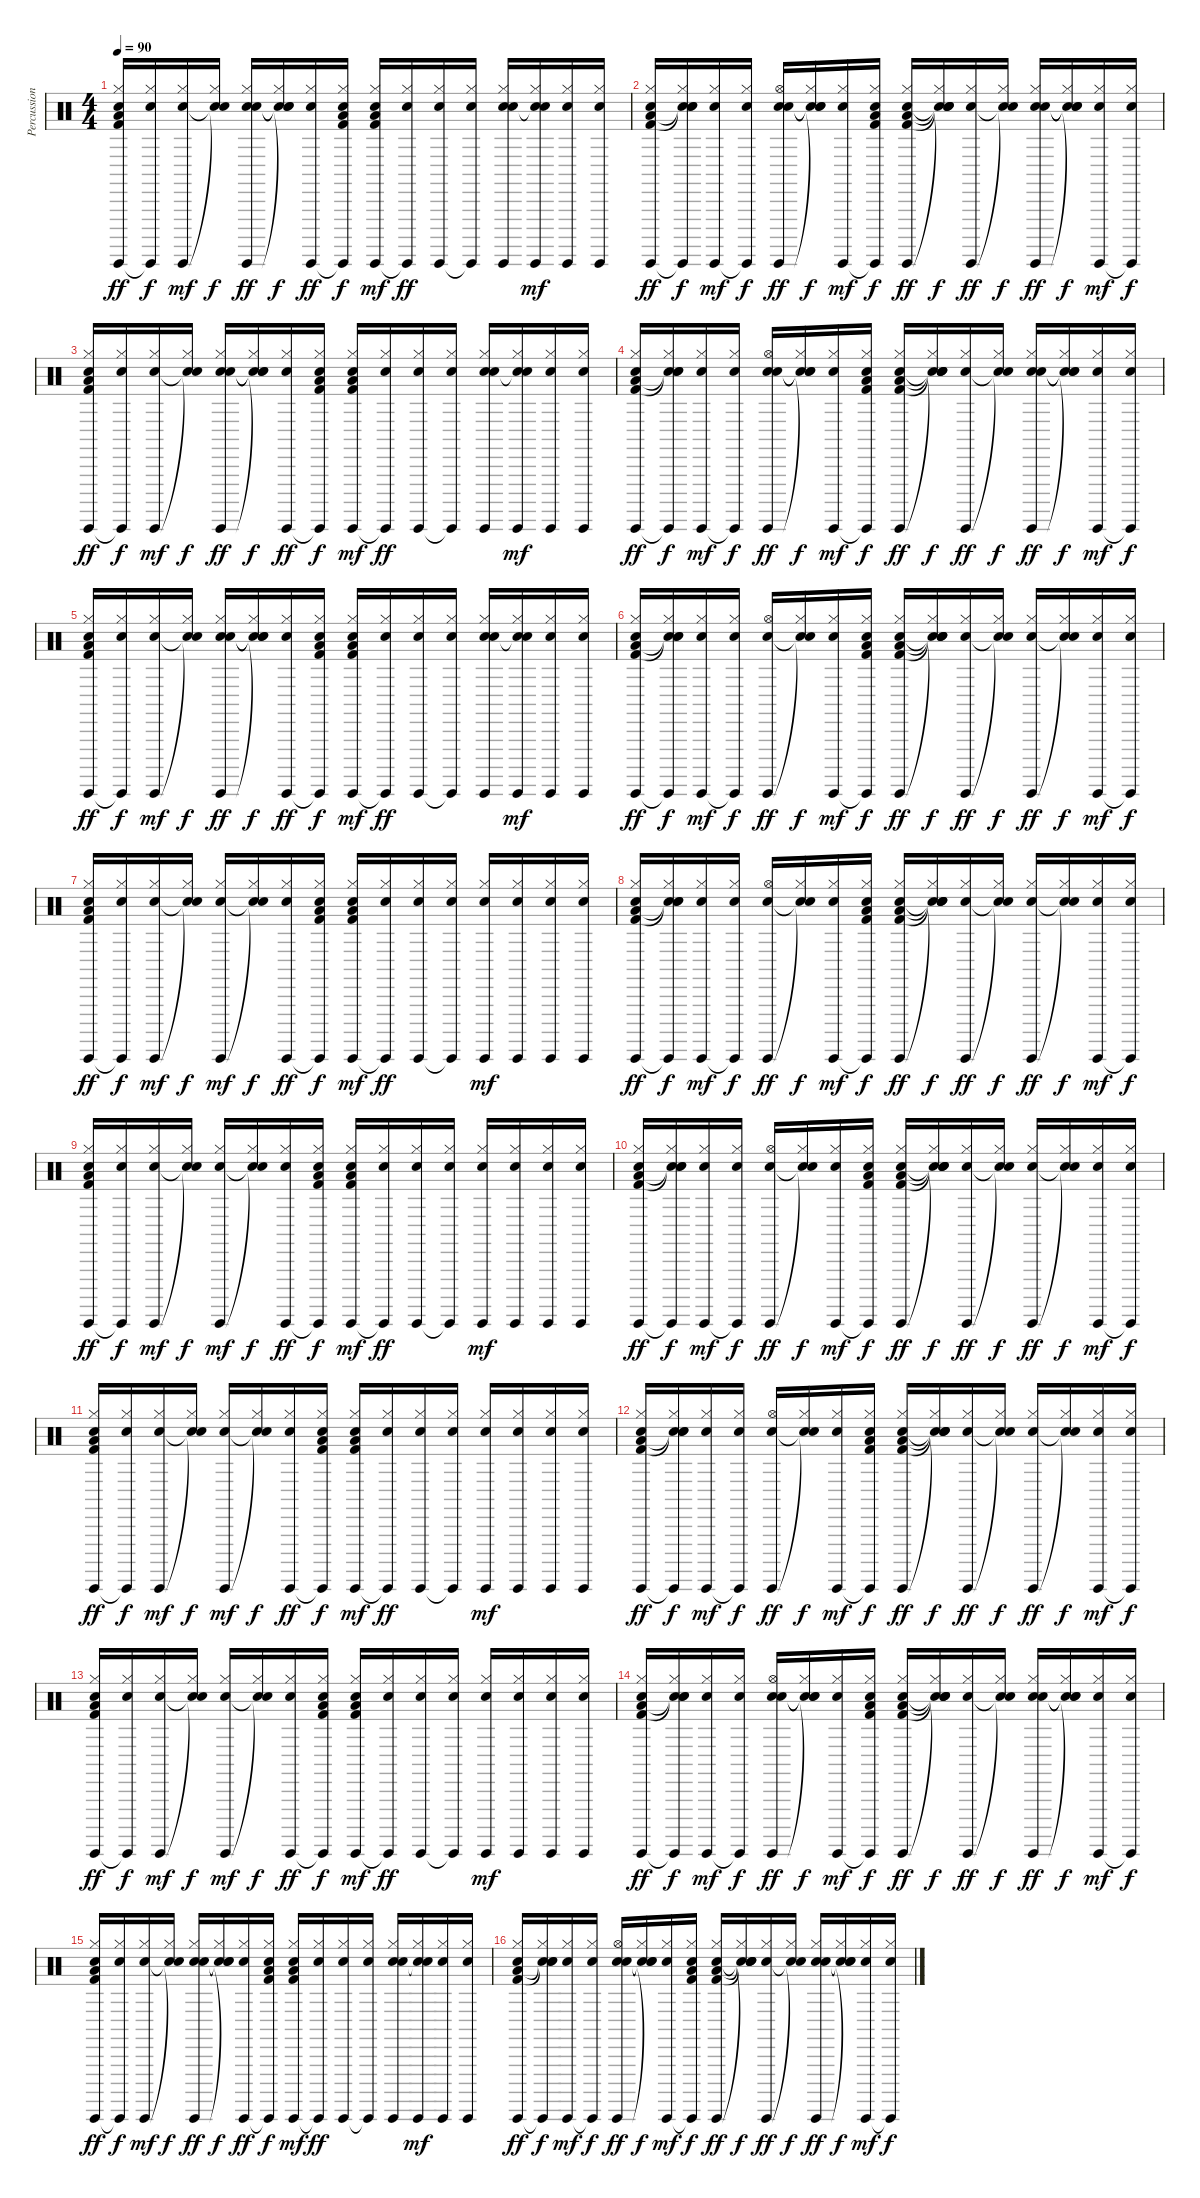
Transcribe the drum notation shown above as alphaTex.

\track ("Percussion" "Percussion") {instrument percussion}
\staff {score}
\articulation defaults
\ts (4 4)
\tempo 90
\clef neutral
\ks c
("Guiro (hit)" "Hi-Hat (closed)" "Hand Clap (hit)" "Low Floor Tom (hit)" "Kick (hit) 2").16{dy ff} ("Guiro (hit)"{t} "Hi-Hat (closed)" "Hand Clap (hit)").16{dy f} ("Guiro (hit)" "Hi-Hat (closed)" "Hand Clap (hit)").16{dy mf} ("Snare (hit)"{t} "Hi-Hat (closed)" "Snare (hit)"{t}).16{dy f} ("Guiro (hit)" "Hi-Hat (closed)" "Hand Clap (hit)" "Snare (hit) 2").16{dy ff} ("Snare (hit)"{t} "Hi-Hat (closed)" "Snare (hit)"{t} "Snare (hit)"{t}).16{dy f} ("Guiro (hit)" "Hi-Hat (closed)" "Hand Clap (hit)").16{dy ff} ("Guiro (hit)"{t} "Hi-Hat (closed)" "Hand Clap (hit)" "Low Floor Tom (hit)" "Kick (hit) 2").16{dy f} ("Guiro (hit)" "Hi-Hat (closed)" "Hand Clap (hit)" "Low Floor Tom (hit)" "Kick (hit) 2").16{dy mf} ("Guiro (hit)"{t} "Hi-Hat (closed)" "Hand Clap (hit)").16{dy ff} ("Guiro (hit)" "Hi-Hat (closed)" "Hand Clap (hit)").16 ("Guiro (hit)"{t} "Hi-Hat (closed)" "Hand Clap (hit)").16 ("Guiro (hit)" "Hi-Hat (closed)" "Hand Clap (hit)" "Snare (hit) 2").16 ("Guiro (hit)" "Hi-Hat (closed)" "Hand Clap (hit)" "Snare (hit)"{t}).16{dy mf} ("Guiro (hit)" "Hi-Hat (closed)" "Hand Clap (hit)").16 ("Guiro (hit)" "Hi-Hat (closed)" "Hand Clap (hit)").16 |
("Guiro (hit)" "Hi-Hat (closed)" "Hand Clap (hit)" "Low Floor Tom (hit)" "Kick (hit) 2").16{dy ff} ("Guiro (hit)"{t} "Hi-Hat (closed)" "Hand Clap (hit)" "Snare (hit)"{t} "Snare (hit)"{t}).16{dy f} ("Guiro (hit)" "Hi-Hat (closed)" "Hand Clap (hit)").16{dy mf} ("Guiro (hit)"{t} "Hi-Hat (closed)" "Hand Clap (hit)").16{dy f} ("Guiro (hit)" "Hi-Hat (open)" "Hand Clap (hit)" "Snare (hit) 2").16{dy ff} ("Snare (hit)"{t} "Hi-Hat (closed)" "Snare (hit)"{t} "Snare (hit)"{t}).16{dy f} ("Guiro (hit)" "Hi-Hat (closed)" "Hand Clap (hit)").16{dy mf} ("Guiro (hit)"{t} "Hi-Hat (closed)" "Hand Clap (hit)" "Low Floor Tom (hit)" "Kick (hit) 2").16{dy f} ("Guiro (hit)" "Hi-Hat (closed)" "Hand Clap (hit)" "Low Floor Tom (hit)" "Kick (hit) 2").16{dy ff} ("Snare (hit)"{t} "Hi-Hat (closed)" "Snare (hit)"{t} "Snare (hit)"{t} "Snare (hit)"{t}).16{dy f} ("Guiro (hit)" "Hi-Hat (closed)" "Hand Clap (hit)").16{dy ff} ("Snare (hit)"{t} "Hi-Hat (closed)" "Snare (hit)"{t}).16{dy f} ("Guiro (hit)" "Hi-Hat (closed)" "Hand Clap (hit)" "Snare (hit) 2").16{dy ff} ("Snare (hit)"{t} "Hi-Hat (closed)" "Snare (hit)"{t} "Snare (hit)"{t}).16{dy f} ("Guiro (hit)" "Hi-Hat (closed)" "Hand Clap (hit)").16{dy mf} ("Guiro (hit)"{t} "Hi-Hat (closed)" "Hand Clap (hit)").16{dy f} |
("Guiro (hit)" "Hi-Hat (closed)" "Hand Clap (hit)" "Low Floor Tom (hit)" "Kick (hit) 2").16{dy ff} ("Guiro (hit)"{t} "Hi-Hat (closed)" "Hand Clap (hit)").16{dy f} ("Guiro (hit)" "Hi-Hat (closed)" "Hand Clap (hit)").16{dy mf} ("Snare (hit)"{t} "Hi-Hat (closed)" "Snare (hit)"{t}).16{dy f} ("Guiro (hit)" "Hi-Hat (closed)" "Hand Clap (hit)" "Snare (hit) 2").16{dy ff} ("Snare (hit)"{t} "Hi-Hat (closed)" "Snare (hit)"{t} "Snare (hit)"{t}).16{dy f} ("Guiro (hit)" "Hi-Hat (closed)" "Hand Clap (hit)").16{dy ff} ("Guiro (hit)"{t} "Hi-Hat (closed)" "Hand Clap (hit)" "Low Floor Tom (hit)" "Kick (hit) 2").16{dy f} ("Guiro (hit)" "Hi-Hat (closed)" "Hand Clap (hit)" "Low Floor Tom (hit)" "Kick (hit) 2").16{dy mf} ("Guiro (hit)"{t} "Hi-Hat (closed)" "Hand Clap (hit)").16{dy ff} ("Guiro (hit)" "Hi-Hat (closed)" "Hand Clap (hit)").16 ("Guiro (hit)"{t} "Hi-Hat (closed)" "Hand Clap (hit)").16 ("Guiro (hit)" "Hi-Hat (closed)" "Hand Clap (hit)" "Snare (hit) 2").16 ("Guiro (hit)" "Hi-Hat (closed)" "Hand Clap (hit)" "Snare (hit)"{t}).16{dy mf} ("Guiro (hit)" "Hi-Hat (closed)" "Hand Clap (hit)").16 ("Guiro (hit)" "Hi-Hat (closed)" "Hand Clap (hit)").16 |
("Guiro (hit)" "Hi-Hat (closed)" "Hand Clap (hit)" "Low Floor Tom (hit)" "Kick (hit) 2").16{dy ff} ("Guiro (hit)"{t} "Hi-Hat (closed)" "Hand Clap (hit)" "Snare (hit)"{t} "Snare (hit)"{t}).16{dy f} ("Guiro (hit)" "Hi-Hat (closed)" "Hand Clap (hit)").16{dy mf} ("Guiro (hit)"{t} "Hi-Hat (closed)" "Hand Clap (hit)").16{dy f} ("Guiro (hit)" "Hi-Hat (open)" "Hand Clap (hit)" "Snare (hit) 2").16{dy ff} ("Snare (hit)"{t} "Hi-Hat (closed)" "Snare (hit)"{t} "Snare (hit)"{t}).16{dy f} ("Guiro (hit)" "Hi-Hat (closed)" "Hand Clap (hit)").16{dy mf} ("Guiro (hit)"{t} "Hi-Hat (closed)" "Hand Clap (hit)" "Low Floor Tom (hit)" "Kick (hit) 2").16{dy f} ("Guiro (hit)" "Hi-Hat (closed)" "Hand Clap (hit)" "Low Floor Tom (hit)" "Kick (hit) 2").16{dy ff} ("Snare (hit)"{t} "Hi-Hat (closed)" "Snare (hit)"{t} "Snare (hit)"{t} "Snare (hit)"{t}).16{dy f} ("Guiro (hit)" "Hi-Hat (closed)" "Hand Clap (hit)").16{dy ff} ("Snare (hit)"{t} "Hi-Hat (closed)" "Snare (hit)"{t}).16{dy f} ("Guiro (hit)" "Hi-Hat (closed)" "Hand Clap (hit)" "Snare (hit) 2").16{dy ff} ("Snare (hit)"{t} "Hi-Hat (closed)" "Snare (hit)"{t} "Snare (hit)"{t}).16{dy f} ("Guiro (hit)" "Hi-Hat (closed)" "Hand Clap (hit)").16{dy mf} ("Guiro (hit)"{t} "Hi-Hat (closed)" "Hand Clap (hit)").16{dy f} |
("Guiro (hit)" "Hi-Hat (closed)" "Hand Clap (hit)" "Low Floor Tom (hit)" "Kick (hit) 2").16{dy ff} ("Guiro (hit)"{t} "Hi-Hat (closed)" "Hand Clap (hit)").16{dy f} ("Guiro (hit)" "Hi-Hat (closed)" "Hand Clap (hit)").16{dy mf} ("Snare (hit)"{t} "Hi-Hat (closed)" "Snare (hit)"{t}).16{dy f} ("Guiro (hit)" "Hi-Hat (closed)" "Hand Clap (hit)" "Snare (hit) 2").16{dy ff} ("Snare (hit)"{t} "Hi-Hat (closed)" "Snare (hit)"{t} "Snare (hit)"{t}).16{dy f} ("Guiro (hit)" "Hi-Hat (closed)" "Hand Clap (hit)").16{dy ff} ("Guiro (hit)"{t} "Hi-Hat (closed)" "Hand Clap (hit)" "Low Floor Tom (hit)" "Kick (hit) 2").16{dy f} ("Guiro (hit)" "Hi-Hat (closed)" "Hand Clap (hit)" "Low Floor Tom (hit)" "Kick (hit) 2").16{dy mf} ("Guiro (hit)"{t} "Hi-Hat (closed)" "Hand Clap (hit)").16{dy ff} ("Guiro (hit)" "Hi-Hat (closed)" "Hand Clap (hit)").16 ("Guiro (hit)"{t} "Hi-Hat (closed)" "Hand Clap (hit)").16 ("Guiro (hit)" "Hi-Hat (closed)" "Hand Clap (hit)" "Snare (hit) 2").16 ("Guiro (hit)" "Hi-Hat (closed)" "Hand Clap (hit)" "Snare (hit)"{t}).16{dy mf} ("Guiro (hit)" "Hi-Hat (closed)" "Hand Clap (hit)").16 ("Guiro (hit)" "Hi-Hat (closed)" "Hand Clap (hit)").16 |
("Guiro (hit)" "Hi-Hat (closed)" "Hand Clap (hit)" "Low Floor Tom (hit)" "Kick (hit) 2").16{dy ff} ("Guiro (hit)"{t} "Hi-Hat (closed)" "Hand Clap (hit)" "Snare (hit)"{t} "Snare (hit)"{t}).16{dy f} ("Guiro (hit)" "Hi-Hat (closed)" "Hand Clap (hit)").16{dy mf} ("Guiro (hit)"{t} "Hi-Hat (closed)" "Hand Clap (hit)").16{dy f} ("Guiro (hit)" "Hi-Hat (open)" "Hand Clap (hit)").16{dy ff} ("Snare (hit)"{t} "Hi-Hat (closed)" "Snare (hit)"{t}).16{dy f} ("Guiro (hit)" "Hi-Hat (closed)" "Hand Clap (hit)").16{dy mf} ("Guiro (hit)"{t} "Hi-Hat (closed)" "Hand Clap (hit)" "Low Floor Tom (hit)" "Kick (hit) 2").16{dy f} ("Guiro (hit)" "Hi-Hat (closed)" "Hand Clap (hit)" "Low Floor Tom (hit)" "Kick (hit) 2").16{dy ff} ("Snare (hit)"{t} "Hi-Hat (closed)" "Snare (hit)"{t} "Snare (hit)"{t} "Snare (hit)"{t}).16{dy f} ("Guiro (hit)" "Hi-Hat (closed)" "Hand Clap (hit)").16{dy ff} ("Snare (hit)"{t} "Hi-Hat (closed)" "Snare (hit)"{t}).16{dy f} ("Guiro (hit)" "Hi-Hat (closed)" "Hand Clap (hit)").16{dy ff} ("Snare (hit)"{t} "Hi-Hat (closed)" "Snare (hit)"{t}).16{dy f} ("Guiro (hit)" "Hi-Hat (closed)" "Hand Clap (hit)").16{dy mf} ("Guiro (hit)"{t} "Hi-Hat (closed)" "Hand Clap (hit)").16{dy f} |
("Guiro (hit)" "Hi-Hat (closed)" "Hand Clap (hit)" "Low Floor Tom (hit)" "Kick (hit) 2").16{dy ff} ("Guiro (hit)"{t} "Hi-Hat (closed)" "Hand Clap (hit)").16{dy f} ("Guiro (hit)" "Hi-Hat (closed)" "Hand Clap (hit)").16{dy mf} ("Snare (hit)"{t} "Hi-Hat (closed)" "Snare (hit)"{t}).16{dy f} ("Guiro (hit)" "Hi-Hat (closed)" "Hand Clap (hit)").16{dy mf} ("Snare (hit)"{t} "Hi-Hat (closed)" "Snare (hit)"{t}).16{dy f} ("Guiro (hit)" "Hi-Hat (closed)" "Hand Clap (hit)").16{dy ff} ("Guiro (hit)"{t} "Hi-Hat (closed)" "Hand Clap (hit)" "Low Floor Tom (hit)" "Kick (hit) 2").16{dy f} ("Guiro (hit)" "Hi-Hat (closed)" "Hand Clap (hit)" "Low Floor Tom (hit)" "Kick (hit) 2").16{dy mf} ("Guiro (hit)"{t} "Hi-Hat (closed)" "Hand Clap (hit)").16{dy ff} ("Guiro (hit)" "Hi-Hat (closed)" "Hand Clap (hit)").16 ("Guiro (hit)"{t} "Hi-Hat (closed)" "Hand Clap (hit)").16 ("Guiro (hit)" "Hi-Hat (closed)" "Hand Clap (hit)").16{dy mf} ("Guiro (hit)" "Hi-Hat (closed)" "Hand Clap (hit)").16 ("Guiro (hit)" "Hi-Hat (closed)" "Hand Clap (hit)").16 ("Guiro (hit)" "Hi-Hat (closed)" "Hand Clap (hit)").16 |
("Guiro (hit)" "Hi-Hat (closed)" "Hand Clap (hit)" "Low Floor Tom (hit)" "Kick (hit) 2").16{dy ff} ("Guiro (hit)"{t} "Hi-Hat (closed)" "Hand Clap (hit)" "Snare (hit)"{t} "Snare (hit)"{t}).16{dy f} ("Guiro (hit)" "Hi-Hat (closed)" "Hand Clap (hit)").16{dy mf} ("Guiro (hit)"{t} "Hi-Hat (closed)" "Hand Clap (hit)").16{dy f} ("Guiro (hit)" "Hi-Hat (open)" "Hand Clap (hit)").16{dy ff} ("Snare (hit)"{t} "Hi-Hat (closed)" "Snare (hit)"{t}).16{dy f} ("Guiro (hit)" "Hi-Hat (closed)" "Hand Clap (hit)").16{dy mf} ("Guiro (hit)"{t} "Hi-Hat (closed)" "Hand Clap (hit)" "Low Floor Tom (hit)" "Kick (hit) 2").16{dy f} ("Guiro (hit)" "Hi-Hat (closed)" "Hand Clap (hit)" "Low Floor Tom (hit)" "Kick (hit) 2").16{dy ff} ("Snare (hit)"{t} "Hi-Hat (closed)" "Snare (hit)"{t} "Snare (hit)"{t} "Snare (hit)"{t}).16{dy f} ("Guiro (hit)" "Hi-Hat (closed)" "Hand Clap (hit)").16{dy ff} ("Snare (hit)"{t} "Hi-Hat (closed)" "Snare (hit)"{t}).16{dy f} ("Guiro (hit)" "Hi-Hat (closed)" "Hand Clap (hit)").16{dy ff} ("Snare (hit)"{t} "Hi-Hat (closed)" "Snare (hit)"{t}).16{dy f} ("Guiro (hit)" "Hi-Hat (closed)" "Hand Clap (hit)").16{dy mf} ("Guiro (hit)"{t} "Hi-Hat (closed)" "Hand Clap (hit)").16{dy f} |
("Guiro (hit)" "Hi-Hat (closed)" "Hand Clap (hit)" "Low Floor Tom (hit)" "Kick (hit) 2").16{dy ff} ("Guiro (hit)"{t} "Hi-Hat (closed)" "Hand Clap (hit)").16{dy f} ("Guiro (hit)" "Hi-Hat (closed)" "Hand Clap (hit)").16{dy mf} ("Snare (hit)"{t} "Hi-Hat (closed)" "Snare (hit)"{t}).16{dy f} ("Guiro (hit)" "Hi-Hat (closed)" "Hand Clap (hit)").16{dy mf} ("Snare (hit)"{t} "Hi-Hat (closed)" "Snare (hit)"{t}).16{dy f} ("Guiro (hit)" "Hi-Hat (closed)" "Hand Clap (hit)").16{dy ff} ("Guiro (hit)"{t} "Hi-Hat (closed)" "Hand Clap (hit)" "Low Floor Tom (hit)" "Kick (hit) 2").16{dy f} ("Guiro (hit)" "Hi-Hat (closed)" "Hand Clap (hit)" "Low Floor Tom (hit)" "Kick (hit) 2").16{dy mf} ("Guiro (hit)"{t} "Hi-Hat (closed)" "Hand Clap (hit)").16{dy ff} ("Guiro (hit)" "Hi-Hat (closed)" "Hand Clap (hit)").16 ("Guiro (hit)"{t} "Hi-Hat (closed)" "Hand Clap (hit)").16 ("Guiro (hit)" "Hi-Hat (closed)" "Hand Clap (hit)").16{dy mf} ("Guiro (hit)" "Hi-Hat (closed)" "Hand Clap (hit)").16 ("Guiro (hit)" "Hi-Hat (closed)" "Hand Clap (hit)").16 ("Guiro (hit)" "Hi-Hat (closed)" "Hand Clap (hit)").16 |
("Guiro (hit)" "Hi-Hat (closed)" "Hand Clap (hit)" "Low Floor Tom (hit)" "Kick (hit) 2").16{dy ff} ("Guiro (hit)"{t} "Hi-Hat (closed)" "Hand Clap (hit)" "Snare (hit)"{t} "Snare (hit)"{t}).16{dy f} ("Guiro (hit)" "Hi-Hat (closed)" "Hand Clap (hit)").16{dy mf} ("Guiro (hit)"{t} "Hi-Hat (closed)" "Hand Clap (hit)").16{dy f} ("Guiro (hit)" "Hi-Hat (open)" "Hand Clap (hit)").16{dy ff} ("Snare (hit)"{t} "Hi-Hat (closed)" "Snare (hit)"{t}).16{dy f} ("Guiro (hit)" "Hi-Hat (closed)" "Hand Clap (hit)").16{dy mf} ("Guiro (hit)"{t} "Hi-Hat (closed)" "Hand Clap (hit)" "Low Floor Tom (hit)" "Kick (hit) 2").16{dy f} ("Guiro (hit)" "Hi-Hat (closed)" "Hand Clap (hit)" "Low Floor Tom (hit)" "Kick (hit) 2").16{dy ff} ("Snare (hit)"{t} "Hi-Hat (closed)" "Snare (hit)"{t} "Snare (hit)"{t} "Snare (hit)"{t}).16{dy f} ("Guiro (hit)" "Hi-Hat (closed)" "Hand Clap (hit)").16{dy ff} ("Snare (hit)"{t} "Hi-Hat (closed)" "Snare (hit)"{t}).16{dy f} ("Guiro (hit)" "Hi-Hat (closed)" "Hand Clap (hit)").16{dy ff} ("Snare (hit)"{t} "Hi-Hat (closed)" "Snare (hit)"{t}).16{dy f} ("Guiro (hit)" "Hi-Hat (closed)" "Hand Clap (hit)").16{dy mf} ("Guiro (hit)"{t} "Hi-Hat (closed)" "Hand Clap (hit)").16{dy f} |
("Guiro (hit)" "Hi-Hat (closed)" "Hand Clap (hit)" "Low Floor Tom (hit)" "Kick (hit) 2").16{dy ff} ("Guiro (hit)"{t} "Hi-Hat (closed)" "Hand Clap (hit)").16{dy f} ("Guiro (hit)" "Hi-Hat (closed)" "Hand Clap (hit)").16{dy mf} ("Snare (hit)"{t} "Hi-Hat (closed)" "Snare (hit)"{t}).16{dy f} ("Guiro (hit)" "Hi-Hat (closed)" "Hand Clap (hit)").16{dy mf} ("Snare (hit)"{t} "Hi-Hat (closed)" "Snare (hit)"{t}).16{dy f} ("Guiro (hit)" "Hi-Hat (closed)" "Hand Clap (hit)").16{dy ff} ("Guiro (hit)"{t} "Hi-Hat (closed)" "Hand Clap (hit)" "Low Floor Tom (hit)" "Kick (hit) 2").16{dy f} ("Guiro (hit)" "Hi-Hat (closed)" "Hand Clap (hit)" "Low Floor Tom (hit)" "Kick (hit) 2").16{dy mf} ("Guiro (hit)"{t} "Hi-Hat (closed)" "Hand Clap (hit)").16{dy ff} ("Guiro (hit)" "Hi-Hat (closed)" "Hand Clap (hit)").16 ("Guiro (hit)"{t} "Hi-Hat (closed)" "Hand Clap (hit)").16 ("Guiro (hit)" "Hi-Hat (closed)" "Hand Clap (hit)").16{dy mf} ("Guiro (hit)" "Hi-Hat (closed)" "Hand Clap (hit)").16 ("Guiro (hit)" "Hi-Hat (closed)" "Hand Clap (hit)").16 ("Guiro (hit)" "Hi-Hat (closed)" "Hand Clap (hit)").16 |
("Guiro (hit)" "Hi-Hat (closed)" "Hand Clap (hit)" "Low Floor Tom (hit)" "Kick (hit) 2").16{dy ff} ("Guiro (hit)"{t} "Hi-Hat (closed)" "Hand Clap (hit)" "Snare (hit)"{t} "Snare (hit)"{t}).16{dy f} ("Guiro (hit)" "Hi-Hat (closed)" "Hand Clap (hit)").16{dy mf} ("Guiro (hit)"{t} "Hi-Hat (closed)" "Hand Clap (hit)").16{dy f} ("Guiro (hit)" "Hi-Hat (open)" "Hand Clap (hit)").16{dy ff} ("Snare (hit)"{t} "Hi-Hat (closed)" "Snare (hit)"{t}).16{dy f} ("Guiro (hit)" "Hi-Hat (closed)" "Hand Clap (hit)").16{dy mf} ("Guiro (hit)"{t} "Hi-Hat (closed)" "Hand Clap (hit)" "Low Floor Tom (hit)" "Kick (hit) 2").16{dy f} ("Guiro (hit)" "Hi-Hat (closed)" "Hand Clap (hit)" "Low Floor Tom (hit)" "Kick (hit) 2").16{dy ff} ("Snare (hit)"{t} "Hi-Hat (closed)" "Snare (hit)"{t} "Snare (hit)"{t} "Snare (hit)"{t}).16{dy f} ("Guiro (hit)" "Hi-Hat (closed)" "Hand Clap (hit)").16{dy ff} ("Snare (hit)"{t} "Hi-Hat (closed)" "Snare (hit)"{t}).16{dy f} ("Guiro (hit)" "Hi-Hat (closed)" "Hand Clap (hit)").16{dy ff} ("Snare (hit)"{t} "Hi-Hat (closed)" "Snare (hit)"{t}).16{dy f} ("Guiro (hit)" "Hi-Hat (closed)" "Hand Clap (hit)").16{dy mf} ("Guiro (hit)"{t} "Hi-Hat (closed)" "Hand Clap (hit)").16{dy f} |
("Guiro (hit)" "Hi-Hat (closed)" "Hand Clap (hit)" "Low Floor Tom (hit)" "Kick (hit) 2").16{dy ff} ("Guiro (hit)"{t} "Hi-Hat (closed)" "Hand Clap (hit)").16{dy f} ("Guiro (hit)" "Hi-Hat (closed)" "Hand Clap (hit)").16{dy mf} ("Snare (hit)"{t} "Hi-Hat (closed)" "Snare (hit)"{t}).16{dy f} ("Guiro (hit)" "Hi-Hat (closed)" "Hand Clap (hit)").16{dy mf} ("Snare (hit)"{t} "Hi-Hat (closed)" "Snare (hit)"{t}).16{dy f} ("Guiro (hit)" "Hi-Hat (closed)" "Hand Clap (hit)").16{dy ff} ("Guiro (hit)"{t} "Hi-Hat (closed)" "Hand Clap (hit)" "Low Floor Tom (hit)" "Kick (hit) 2").16{dy f} ("Guiro (hit)" "Hi-Hat (closed)" "Hand Clap (hit)" "Low Floor Tom (hit)" "Kick (hit) 2").16{dy mf} ("Guiro (hit)"{t} "Hi-Hat (closed)" "Hand Clap (hit)").16{dy ff} ("Guiro (hit)" "Hi-Hat (closed)" "Hand Clap (hit)").16 ("Guiro (hit)"{t} "Hi-Hat (closed)" "Hand Clap (hit)").16 ("Guiro (hit)" "Hi-Hat (closed)" "Hand Clap (hit)").16{dy mf} ("Guiro (hit)" "Hi-Hat (closed)" "Hand Clap (hit)").16 ("Guiro (hit)" "Hi-Hat (closed)" "Hand Clap (hit)").16 ("Guiro (hit)" "Hi-Hat (closed)" "Hand Clap (hit)").16 |
("Guiro (hit)" "Hi-Hat (closed)" "Hand Clap (hit)" "Low Floor Tom (hit)" "Kick (hit) 2").16{dy ff} ("Guiro (hit)"{t} "Hi-Hat (closed)" "Hand Clap (hit)" "Snare (hit)"{t} "Snare (hit)"{t}).16{dy f} ("Guiro (hit)" "Hi-Hat (closed)" "Hand Clap (hit)").16{dy mf} ("Guiro (hit)"{t} "Hi-Hat (closed)" "Hand Clap (hit)").16{dy f} ("Guiro (hit)" "Hi-Hat (open)" "Hand Clap (hit)" "Snare (hit) 2").16{dy ff} ("Snare (hit)"{t} "Hi-Hat (closed)" "Snare (hit)"{t} "Snare (hit)"{t}).16{dy f} ("Guiro (hit)" "Hi-Hat (closed)" "Hand Clap (hit)").16{dy mf} ("Guiro (hit)"{t} "Hi-Hat (closed)" "Hand Clap (hit)" "Low Floor Tom (hit)" "Kick (hit) 2").16{dy f} ("Guiro (hit)" "Hi-Hat (closed)" "Hand Clap (hit)" "Low Floor Tom (hit)" "Kick (hit) 2").16{dy ff} ("Snare (hit)"{t} "Hi-Hat (closed)" "Snare (hit)"{t} "Snare (hit)"{t} "Snare (hit)"{t}).16{dy f} ("Guiro (hit)" "Hi-Hat (closed)" "Hand Clap (hit)").16{dy ff} ("Snare (hit)"{t} "Hi-Hat (closed)" "Snare (hit)"{t}).16{dy f} ("Guiro (hit)" "Hi-Hat (closed)" "Hand Clap (hit)" "Snare (hit) 2").16{dy ff} ("Snare (hit)"{t} "Hi-Hat (closed)" "Snare (hit)"{t} "Snare (hit)"{t}).16{dy f} ("Guiro (hit)" "Hi-Hat (closed)" "Hand Clap (hit)").16{dy mf} ("Guiro (hit)"{t} "Hi-Hat (closed)" "Hand Clap (hit)").16{dy f} |
("Guiro (hit)" "Hi-Hat (closed)" "Hand Clap (hit)" "Low Floor Tom (hit)" "Kick (hit) 2").16{dy ff} ("Guiro (hit)"{t} "Hi-Hat (closed)" "Hand Clap (hit)").16{dy f} ("Guiro (hit)" "Hi-Hat (closed)" "Hand Clap (hit)").16{dy mf} ("Snare (hit)"{t} "Hi-Hat (closed)" "Snare (hit)"{t}).16{dy f} ("Guiro (hit)" "Hi-Hat (closed)" "Hand Clap (hit)" "Snare (hit) 2").16{dy ff} ("Snare (hit)"{t} "Hi-Hat (closed)" "Snare (hit)"{t} "Snare (hit)"{t}).16{dy f} ("Guiro (hit)" "Hi-Hat (closed)" "Hand Clap (hit)").16{dy ff} ("Guiro (hit)"{t} "Hi-Hat (closed)" "Hand Clap (hit)" "Low Floor Tom (hit)" "Kick (hit) 2").16{dy f} ("Guiro (hit)" "Hi-Hat (closed)" "Hand Clap (hit)" "Low Floor Tom (hit)" "Kick (hit) 2").16{dy mf} ("Guiro (hit)"{t} "Hi-Hat (closed)" "Hand Clap (hit)").16{dy ff} ("Guiro (hit)" "Hi-Hat (closed)" "Hand Clap (hit)").16 ("Guiro (hit)"{t} "Hi-Hat (closed)" "Hand Clap (hit)").16 ("Guiro (hit)" "Hi-Hat (closed)" "Hand Clap (hit)" "Snare (hit) 2").16 ("Guiro (hit)" "Hi-Hat (closed)" "Hand Clap (hit)" "Snare (hit)"{t}).16{dy mf} ("Guiro (hit)" "Hi-Hat (closed)" "Hand Clap (hit)").16 ("Guiro (hit)" "Hi-Hat (closed)" "Hand Clap (hit)").16 |
("Guiro (hit)" "Hi-Hat (closed)" "Hand Clap (hit)" "Low Floor Tom (hit)" "Kick (hit) 2").16{dy ff} ("Guiro (hit)"{t} "Hi-Hat (closed)" "Hand Clap (hit)" "Snare (hit)"{t} "Snare (hit)"{t}).16{dy f} ("Guiro (hit)" "Hi-Hat (closed)" "Hand Clap (hit)").16{dy mf} ("Guiro (hit)"{t} "Hi-Hat (closed)" "Hand Clap (hit)").16{dy f} ("Guiro (hit)" "Hi-Hat (open)" "Hand Clap (hit)" "Snare (hit) 2").16{dy ff} ("Snare (hit)"{t} "Hi-Hat (closed)" "Snare (hit)"{t} "Snare (hit)"{t}).16{dy f} ("Guiro (hit)" "Hi-Hat (closed)" "Hand Clap (hit)").16{dy mf} ("Guiro (hit)"{t} "Hi-Hat (closed)" "Hand Clap (hit)" "Low Floor Tom (hit)" "Kick (hit) 2").16{dy f} ("Guiro (hit)" "Hi-Hat (closed)" "Hand Clap (hit)" "Low Floor Tom (hit)" "Kick (hit) 2").16{dy ff} ("Snare (hit)"{t} "Hi-Hat (closed)" "Snare (hit)"{t} "Snare (hit)"{t} "Snare (hit)"{t}).16{dy f} ("Guiro (hit)" "Hi-Hat (closed)" "Hand Clap (hit)").16{dy ff} ("Snare (hit)"{t} "Hi-Hat (closed)" "Snare (hit)"{t}).16{dy f} ("Guiro (hit)" "Hi-Hat (closed)" "Hand Clap (hit)" "Snare (hit) 2").16{dy ff} ("Snare (hit)"{t} "Hi-Hat (closed)" "Snare (hit)"{t} "Snare (hit)"{t}).16{dy f} ("Guiro (hit)" "Hi-Hat (closed)" "Hand Clap (hit)").16{dy mf} ("Guiro (hit)"{t} "Hi-Hat (closed)" "Hand Clap (hit)").16{dy f}
